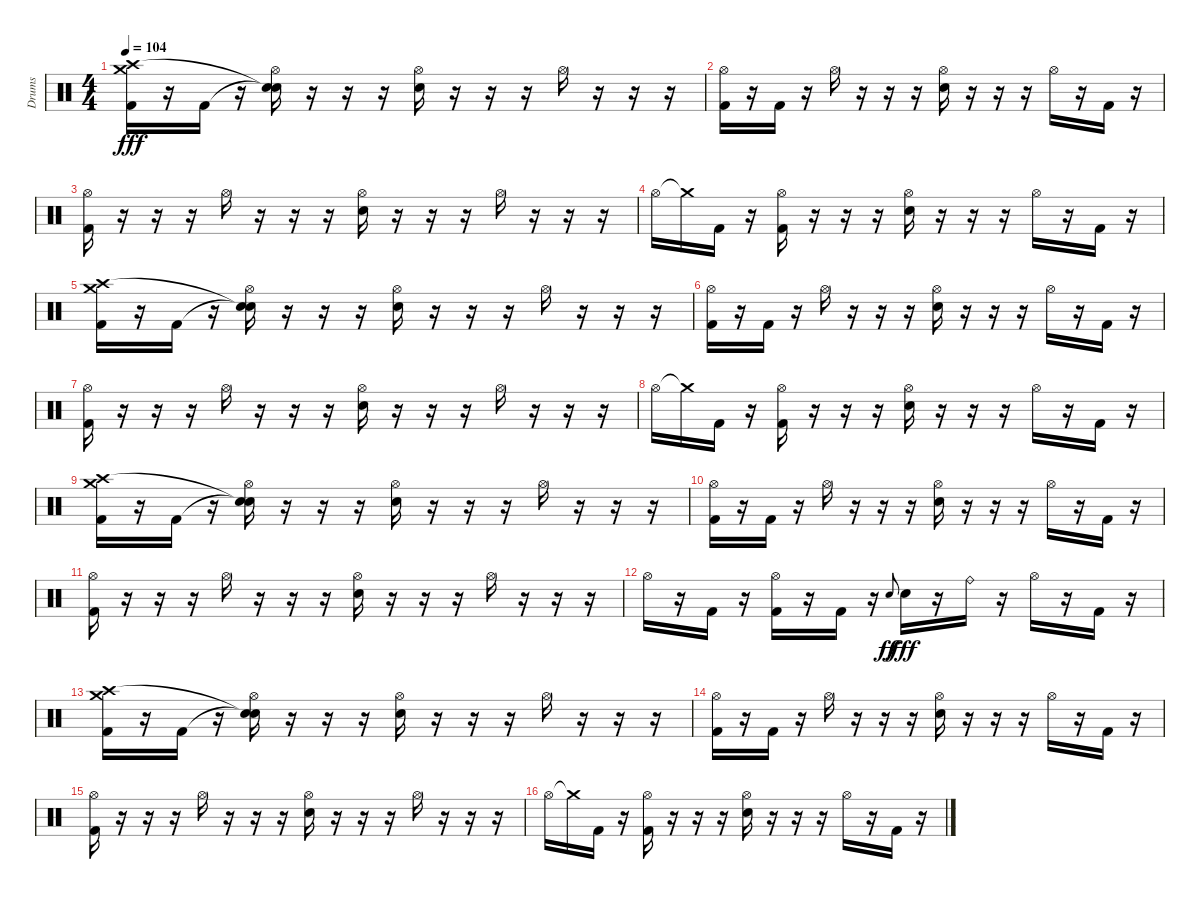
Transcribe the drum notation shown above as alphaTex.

\track ("Drums" "Drums") {instrument percussion}
\staff {score}
\articulation defaults
\ts (4 4)
\tempo 104
\clef neutral
\ks c
("Crash medium (hit)" "Crash high (hit)" "Kick (hit) 2").16{dy fff} r.16 "Kick (hit) 2".16 r.16 ("Snare (hit)"{t} "Snare (hit)"{t} "Hi-Hat (open)").16 r.16 r.16 r.16 ("Hi-Hat (open)" "Electric Snare (hit)").16 r.16 r.16 r.16 "Hi-Hat (open)".16 r.16 r.16 r.16 |
("Hi-Hat (open)" "Kick (hit) 2").16 r.16 "Kick (hit) 2".16 r.16 "Hi-Hat (open)".16 r.16 r.16 r.16 ("Hi-Hat (open)" "Electric Snare (hit)").16 r.16 r.16 r.16 "Hi-Hat (open)".16 r.16 "Kick (hit) 2".16 r.16 |
("Hi-Hat (open)" "Kick (hit) 2").16 r.16 r.16 r.16 "Hi-Hat (open)".16 r.16 r.16 r.16 ("Hi-Hat (open)" "Electric Snare (hit)").16 r.16 r.16 r.16 "Hi-Hat (open)".16 r.16 r.16 r.16 |
"Hi-Hat (open)".16 "Crash medium (hit)"{t}.16 "Kick (hit) 2".16 r.16 ("Hi-Hat (open)" "Kick (hit) 2").16 r.16 r.16 r.16 ("Hi-Hat (open)" "Electric Snare (hit)").16 r.16 r.16 r.16 "Hi-Hat (open)".16 r.16 "Kick (hit) 2".16 r.16 |
("Crash medium (hit)" "Crash high (hit)" "Kick (hit) 2").16 r.16 "Kick (hit) 2".16 r.16 ("Snare (hit)"{t} "Snare (hit)"{t} "Hi-Hat (open)").16 r.16 r.16 r.16 ("Hi-Hat (open)" "Electric Snare (hit)").16 r.16 r.16 r.16 "Hi-Hat (open)".16 r.16 r.16 r.16 |
("Hi-Hat (open)" "Kick (hit) 2").16 r.16 "Kick (hit) 2".16 r.16 "Hi-Hat (open)".16 r.16 r.16 r.16 ("Hi-Hat (open)" "Electric Snare (hit)").16 r.16 r.16 r.16 "Hi-Hat (open)".16 r.16 "Kick (hit) 2".16 r.16 |
("Hi-Hat (open)" "Kick (hit) 2").16 r.16 r.16 r.16 "Hi-Hat (open)".16 r.16 r.16 r.16 ("Hi-Hat (open)" "Electric Snare (hit)").16 r.16 r.16 r.16 "Hi-Hat (open)".16 r.16 r.16 r.16 |
"Hi-Hat (open)".16 "Crash medium (hit)"{t}.16 "Kick (hit) 2".16 r.16 ("Hi-Hat (open)" "Kick (hit) 2").16 r.16 r.16 r.16 ("Hi-Hat (open)" "Electric Snare (hit)").16 r.16 r.16 r.16 "Hi-Hat (open)".16 r.16 "Kick (hit) 2".16 r.16 |
("Crash medium (hit)" "Crash high (hit)" "Kick (hit) 2").16{volume 7} r.16 "Kick (hit) 2".16 r.16 ("Snare (hit)"{t} "Snare (hit)"{t} "Hi-Hat (open)").16 r.16 r.16 r.16 ("Hi-Hat (open)" "Electric Snare (hit)").16 r.16 r.16 r.16 "Hi-Hat (open)".16 r.16 r.16 r.16 |
("Hi-Hat (open)" "Kick (hit) 2").16 r.16 "Kick (hit) 2".16 r.16 "Hi-Hat (open)".16 r.16 r.16 r.16 ("Hi-Hat (open)" "Electric Snare (hit)").16 r.16 r.16 r.16 "Hi-Hat (open)".16 r.16 "Kick (hit) 2".16 r.16 |
("Hi-Hat (open)" "Kick (hit) 2").16 r.16 r.16 r.16 "Hi-Hat (open)".16 r.16 r.16 r.16 ("Hi-Hat (open)" "Electric Snare (hit)").16 r.16 r.16 r.16 "Hi-Hat (open)".16 r.16 r.16 r.16 |
"Hi-Hat (open)".16 r.16 "Kick (hit) 2".16 r.16 ("Hi-Hat (open)" "Kick (hit) 2").16 r.16 "Kick (hit) 2".16 r.16 "Electric Snare (hit)"{h}.8{gr onbeat dy ff} "Electric Snare (hit)".16{dy fff} r.16 "Ride (bell)".16 r.16 "Hi-Hat (open)".16 r.16 "Kick (hit) 2".16 r.16 |
("Crash medium (hit)" "Crash high (hit)" "Kick (hit) 2").16{volume 0} r.16 "Kick (hit) 2".16 r.16 ("Snare (hit)"{t} "Snare (hit)"{t} "Hi-Hat (open)").16 r.16 r.16 r.16 ("Hi-Hat (open)" "Electric Snare (hit)").16 r.16 r.16 r.16 "Hi-Hat (open)".16 r.16 r.16 r.16 |
("Hi-Hat (open)" "Kick (hit) 2").16 r.16 "Kick (hit) 2".16 r.16 "Hi-Hat (open)".16 r.16 r.16 r.16 ("Hi-Hat (open)" "Electric Snare (hit)").16 r.16 r.16 r.16 "Hi-Hat (open)".16 r.16 "Kick (hit) 2".16 r.16 |
("Hi-Hat (open)" "Kick (hit) 2").16 r.16 r.16 r.16 "Hi-Hat (open)".16 r.16 r.16 r.16 ("Hi-Hat (open)" "Electric Snare (hit)").16 r.16 r.16 r.16 "Hi-Hat (open)".16 r.16 r.16 r.16 |
"Hi-Hat (open)".16 "Crash medium (hit)"{t}.16 "Kick (hit) 2".16 r.16 ("Hi-Hat (open)" "Kick (hit) 2").16 r.16 r.16 r.16 ("Hi-Hat (open)" "Electric Snare (hit)").16 r.16 r.16 r.16 "Hi-Hat (open)".16 r.16 "Kick (hit) 2".16 r.16
